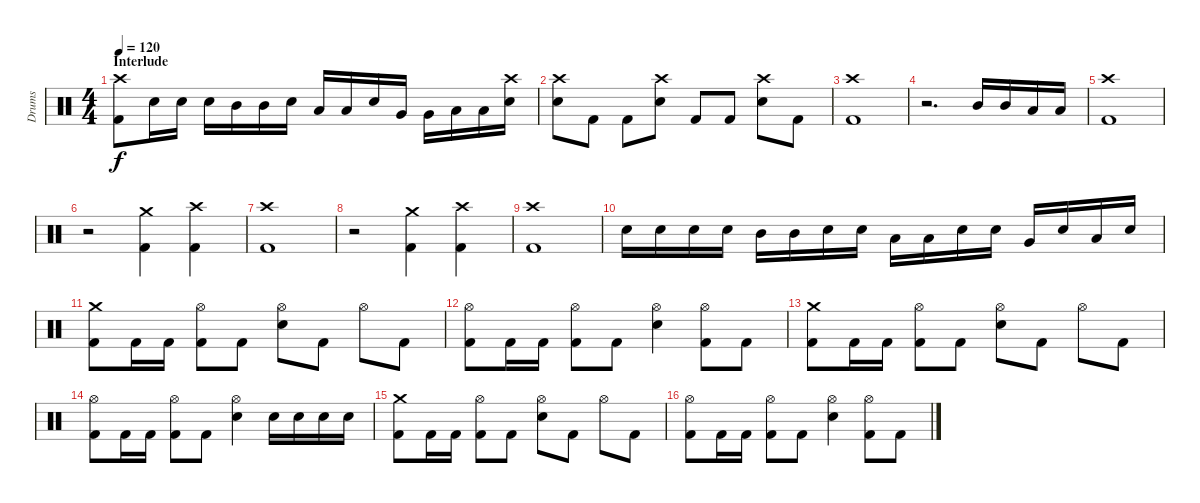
\track ("Drums" "Drums") {instrument percussion}
\staff {score}
\articulation defaults
\ts (4 4)
\section ("" "Interlude")
\tempo 120
\clef neutral
\ks c
("Crash high (hit)" "Kick (hit) 2").8{dy f} "Snare (hit) 2".16 "Snare (hit) 2".16 "Snare (hit) 2".16 "Mid Tom (hit)".16 "Mid Tom (hit)".16 "Snare (hit) 2".16 "Low Tom (hit)".16 "Low Tom (hit)".16 "Snare (hit) 2".16 "Very Low Tom (hit)".16 "Very Low Tom (hit)".16 "Low Floor Tom (hit)".16 "Low Floor Tom (hit)".16 ("Crash high (hit)" "Electric Snare (hit)").16 |
("Crash high (hit)" "Snare (hit) 2").8 "Kick (hit) 2".8 "Kick (hit) 2".8 ("Crash high (hit)" "Snare (hit) 2").8 "Kick (hit) 2".8 "Kick (hit) 2".8 ("Crash high (hit)" "Snare (hit) 2").8 "Kick (hit) 2".8 |
("Crash high (hit)" "Kick (hit) 2").1 |
r.2{d} "Mid Tom (hit)".16 "Mid Tom (hit)".16 "Low Tom (hit)".16 "Low Tom (hit)".16 |
("Crash high (hit)" "Kick (hit) 2").1 |
r.2 ("Crash medium (hit)" "Kick (hit) 2").4 ("Crash high (hit)" "Kick (hit) 2").4 |
("Crash high (hit)" "Kick (hit) 2").1 |
r.2 ("Crash medium (hit)" "Kick (hit) 2").4 ("Crash high (hit)" "Kick (hit) 2").4 |
("Crash high (hit)" "Kick (hit) 2").1 |
"Snare (hit) 2".16 "Snare (hit) 2".16 "Snare (hit) 2".16 "Snare (hit) 2".16 "Mid Tom (hit)".16 "Mid Tom (hit)".16 "Snare (hit) 2".16 "Snare (hit) 2".16 "Low Tom (hit)".16 "Low Tom (hit)".16 "Snare (hit) 2".16 "Snare (hit) 2".16 "Very Low Tom (hit)".16 "Snare (hit) 2".16 "Low Floor Tom (hit)".16 "Snare (hit) 2".16 |
("Crash medium (hit)" "Kick (hit) 2").8 "Kick (hit) 2".16 "Kick (hit) 2".16 ("Hi-Hat (open)" "Kick (hit) 2").8 "Kick (hit) 2".8 ("Hi-Hat (open)" "Snare (hit) 2").8 "Kick (hit) 2".8 "Hi-Hat (open)".8 "Kick (hit) 2".8 |
("Hi-Hat (open)" "Kick (hit) 2").8 "Kick (hit) 2".16 "Kick (hit) 2".16 ("Hi-Hat (open)" "Kick (hit) 2").8 "Kick (hit) 2".8 ("Hi-Hat (open)" "Snare (hit) 2").4 ("Hi-Hat (open)" "Kick (hit) 2").8 "Kick (hit) 2".8 |
("Crash medium (hit)" "Kick (hit) 2").8 "Kick (hit) 2".16 "Kick (hit) 2".16 ("Hi-Hat (open)" "Kick (hit) 2").8 "Kick (hit) 2".8 ("Hi-Hat (open)" "Snare (hit) 2").8 "Kick (hit) 2".8 "Hi-Hat (open)".8 "Kick (hit) 2".8 |
("Hi-Hat (open)" "Kick (hit) 2").8 "Kick (hit) 2".16 "Kick (hit) 2".16 ("Hi-Hat (open)" "Kick (hit) 2").8 "Kick (hit) 2".8 ("Hi-Hat (open)" "Snare (hit) 2").4 "Snare (hit) 2".16 "Snare (hit) 2".16 "Snare (hit) 2".16 "Snare (hit) 2".16 |
("Crash medium (hit)" "Kick (hit) 2").8 "Kick (hit) 2".16 "Kick (hit) 2".16 ("Hi-Hat (open)" "Kick (hit) 2").8 "Kick (hit) 2".8 ("Hi-Hat (open)" "Snare (hit) 2").8 "Kick (hit) 2".8 "Hi-Hat (open)".8 "Kick (hit) 2".8 |
("Hi-Hat (open)" "Kick (hit) 2").8 "Kick (hit) 2".16 "Kick (hit) 2".16 ("Hi-Hat (open)" "Kick (hit) 2").8 "Kick (hit) 2".8 ("Hi-Hat (open)" "Snare (hit) 2").4 ("Hi-Hat (open)" "Kick (hit) 2").8 "Kick (hit) 2".8
